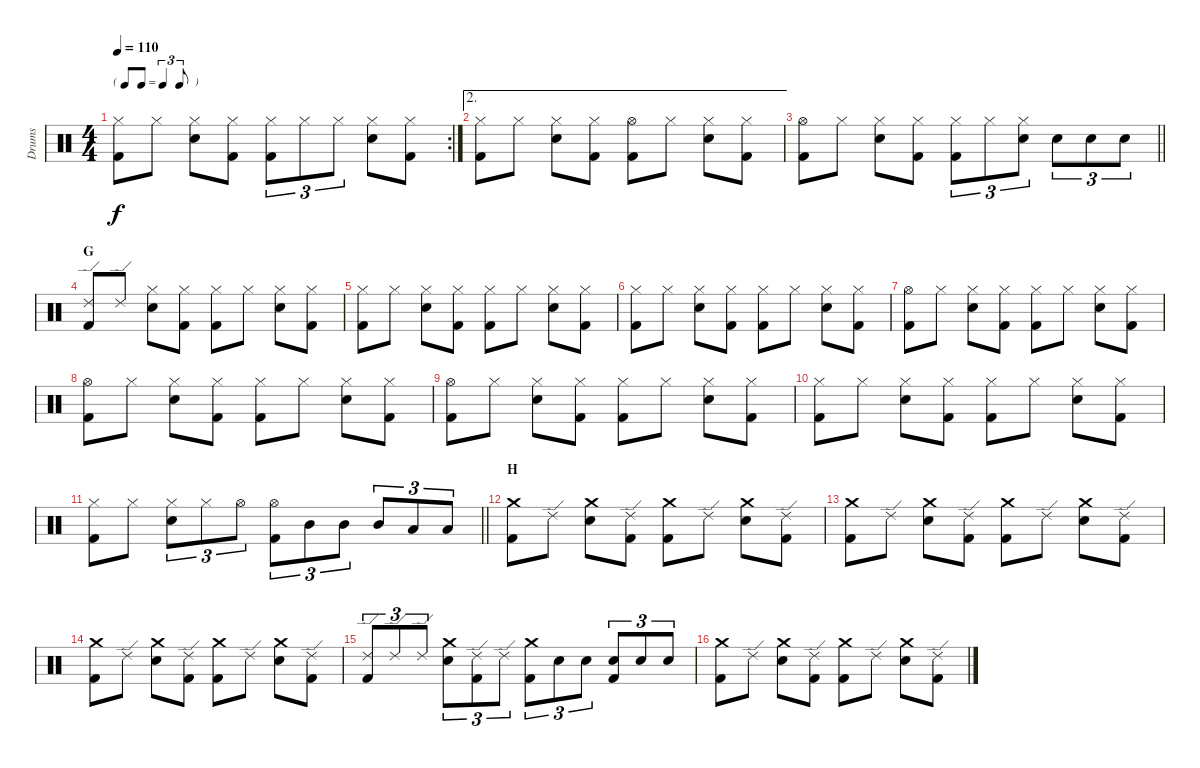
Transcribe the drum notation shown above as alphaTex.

\track ("Drums" "Drums") {instrument percussion}
\staff {score}
\articulation defaults
\rc 2
\ts (4 4)
\tf triplet8th
\tempo 110
\clef neutral
\ks c
("Hi-Hat (closed)" "Kick (hit) 2").8{dy f} "Hi-Hat (closed)".8 ("Hi-Hat (closed)" "Snare (hit) 2").8 ("Hi-Hat (closed)" "Kick (hit) 2").8 ("Hi-Hat (closed)" "Kick (hit) 2").8{tu (3 2)} "Hi-Hat (closed)".8{tu (3 2)} "Hi-Hat (closed)".8{tu (3 2)} ("Hi-Hat (closed)" "Snare (hit) 2").8 ("Hi-Hat (closed)" "Kick (hit) 2").8 |
\ae 2
("Hi-Hat (closed)" "Kick (hit) 2").8 "Hi-Hat (closed)".8 ("Hi-Hat (closed)" "Snare (hit) 2").8 ("Hi-Hat (closed)" "Kick (hit) 2").8 ("Hi-Hat (open)" "Kick (hit) 2").8 "Hi-Hat (closed)".8 ("Hi-Hat (closed)" "Snare (hit) 2").8 ("Hi-Hat (closed)" "Kick (hit) 2").8 |
\barLineRight lightlight
("Hi-Hat (open)" "Kick (hit) 2").8 "Hi-Hat (closed)".8 ("Hi-Hat (closed)" "Snare (hit) 2").8 ("Hi-Hat (closed)" "Kick (hit) 2").8 ("Hi-Hat (closed)" "Kick (hit) 2").8{tu (3 2)} "Hi-Hat (closed)".8{tu (3 2)} ("Hi-Hat (closed)" "Snare (hit) 2").8{tu (3 2)} "Snare (hit) 2".8{tu (3 2)} "Snare (hit) 2".8{tu (3 2)} "Snare (hit) 2".8{tu (3 2)} |
\section ("" "G")
("Ride (edge) 2" "Kick (hit) 2").8 "Ride (edge) 2".8 ("Hi-Hat (closed)" "Snare (hit) 2").8 ("Hi-Hat (closed)" "Kick (hit) 2").8 ("Hi-Hat (closed)" "Kick (hit) 2").8 "Hi-Hat (closed)".8 ("Hi-Hat (closed)" "Snare (hit) 2").8 ("Hi-Hat (closed)" "Kick (hit) 2").8 |
("Hi-Hat (closed)" "Kick (hit) 2").8 "Hi-Hat (closed)".8 ("Hi-Hat (closed)" "Snare (hit) 2").8 ("Hi-Hat (closed)" "Kick (hit) 2").8 ("Hi-Hat (closed)" "Kick (hit) 2").8 "Hi-Hat (closed)".8 ("Hi-Hat (closed)" "Snare (hit) 2").8 ("Hi-Hat (closed)" "Kick (hit) 2").8 |
("Hi-Hat (closed)" "Kick (hit) 2").8 "Hi-Hat (closed)".8 ("Hi-Hat (closed)" "Snare (hit) 2").8 ("Hi-Hat (closed)" "Kick (hit) 2").8 ("Hi-Hat (closed)" "Kick (hit) 2").8 "Hi-Hat (closed)".8 ("Hi-Hat (closed)" "Snare (hit) 2").8 ("Hi-Hat (closed)" "Kick (hit) 2").8 |
("Hi-Hat (open)" "Kick (hit) 2").8 "Hi-Hat (closed)".8 ("Hi-Hat (closed)" "Snare (hit) 2").8 ("Hi-Hat (closed)" "Kick (hit) 2").8 ("Hi-Hat (closed)" "Kick (hit) 2").8 "Hi-Hat (closed)".8 ("Hi-Hat (closed)" "Snare (hit) 2").8 ("Hi-Hat (closed)" "Kick (hit) 2").8 |
("Hi-Hat (open)" "Kick (hit) 2").8 "Hi-Hat (closed)".8 ("Hi-Hat (closed)" "Snare (hit) 2").8 ("Hi-Hat (closed)" "Kick (hit) 2").8 ("Hi-Hat (closed)" "Kick (hit) 2").8 "Hi-Hat (closed)".8 ("Hi-Hat (closed)" "Snare (hit) 2").8 ("Hi-Hat (closed)" "Kick (hit) 2").8 |
("Hi-Hat (open)" "Kick (hit) 2").8 "Hi-Hat (closed)".8 ("Hi-Hat (closed)" "Snare (hit) 2").8 ("Hi-Hat (closed)" "Kick (hit) 2").8 ("Hi-Hat (closed)" "Kick (hit) 2").8 "Hi-Hat (closed)".8 ("Hi-Hat (closed)" "Snare (hit) 2").8 ("Hi-Hat (closed)" "Kick (hit) 2").8 |
("Hi-Hat (closed)" "Kick (hit) 2").8 "Hi-Hat (closed)".8 ("Hi-Hat (closed)" "Snare (hit) 2").8 ("Hi-Hat (closed)" "Kick (hit) 2").8 ("Hi-Hat (closed)" "Kick (hit) 2").8 "Hi-Hat (closed)".8 ("Hi-Hat (closed)" "Snare (hit) 2").8 ("Hi-Hat (closed)" "Kick (hit) 2").8 |
\barLineRight lightlight
("Hi-Hat (closed)" "Kick (hit) 2").8 "Hi-Hat (closed)".8 ("Hi-Hat (closed)" "Snare (hit) 2").8{tu (3 2)} "Hi-Hat (closed)".8{tu (3 2)} "Hi-Hat (open)".8{tu (3 2)} ("Hi-Hat (open)" "Kick (hit) 2").8{tu (3 2)} "Mid Tom (hit)".8{tu (3 2)} "Mid Tom (hit)".8{tu (3 2)} "Mid Tom (hit)".8{tu (3 2)} "Low Tom (hit)".8{tu (3 2)} "Low Tom (hit)".8{tu (3 2)} |
\section ("" "H")
("Crash medium (hit)" "Kick (hit) 2").8 "Ride (edge) 2".8 ("Crash medium (hit)" "Snare (hit) 2").8 ("Ride (edge) 2" "Kick (hit) 2").8 ("Crash medium (hit)" "Kick (hit) 2").8 "Ride (edge) 2".8 ("Crash medium (hit)" "Snare (hit) 2").8 ("Ride (edge) 2" "Kick (hit) 2").8 |
("Crash medium (hit)" "Kick (hit) 2").8 "Ride (edge) 2".8 ("Crash medium (hit)" "Snare (hit) 2").8 ("Ride (edge) 2" "Kick (hit) 2").8 ("Crash medium (hit)" "Kick (hit) 2").8 "Ride (edge) 2".8 ("Crash medium (hit)" "Snare (hit) 2").8 ("Ride (edge) 2" "Kick (hit) 2").8 |
("Crash medium (hit)" "Kick (hit) 2").8 "Ride (edge) 2".8 ("Crash medium (hit)" "Snare (hit) 2").8 ("Ride (edge) 2" "Kick (hit) 2").8 ("Crash medium (hit)" "Kick (hit) 2").8 "Ride (edge) 2".8 ("Crash medium (hit)" "Snare (hit) 2").8 ("Ride (edge) 2" "Kick (hit) 2").8 |
("Ride (edge) 2" "Kick (hit) 2").8{tu (3 2)} "Ride (edge) 2".8{tu (3 2)} "Ride (edge) 2".8{tu (3 2)} ("Crash medium (hit)" "Snare (hit) 2").8{tu (3 2)} ("Ride (edge) 2" "Kick (hit) 2").8{tu (3 2)} "Ride (edge) 2".8{tu (3 2)} ("Crash medium (hit)" "Kick (hit) 2").8{tu (3 2)} "Snare (hit) 2".8{tu (3 2)} "Snare (hit) 2".8{tu (3 2)} ("Snare (hit) 2" "Kick (hit) 2").8{tu (3 2)} "Snare (hit) 2".8{tu (3 2)} "Snare (hit) 2".8{tu (3 2)} |
("Crash medium (hit)" "Kick (hit) 2").8 "Ride (edge) 2".8 ("Crash medium (hit)" "Snare (hit) 2").8 ("Ride (edge) 2" "Kick (hit) 2").8 ("Crash medium (hit)" "Kick (hit) 2").8 "Ride (edge) 2".8 ("Crash medium (hit)" "Snare (hit) 2").8 ("Ride (edge) 2" "Kick (hit) 2").8
